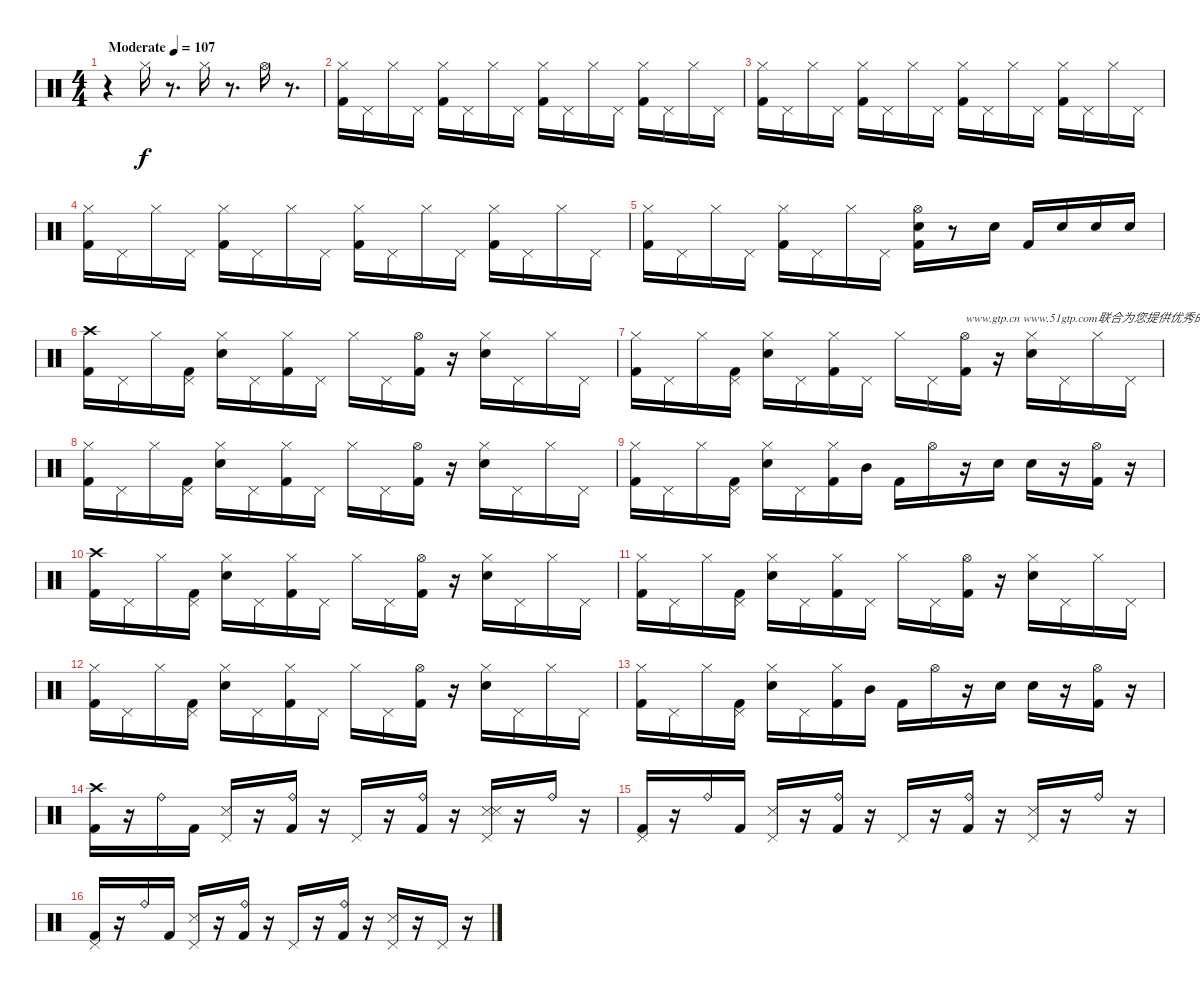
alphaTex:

\track "" {instrument percussion}
\staff {score}
\articulation defaults
\ts (4 4)
\tempo (107 "Moderate")
\clef neutral
\ks c
r.4{dy f} "Hi-Hat (closed)".16 r.8{d} "Hi-Hat (closed)".16 r.8{d} "Hi-Hat (open)".16 r.8{d} |
("Hi-Hat (closed)" "Kick (hit) 2").16 "Pedal Hi-Hat (hit)".16 "Hi-Hat (closed)".16 "Pedal Hi-Hat (hit)".16 ("Hi-Hat (closed)" "Kick (hit) 2").16 "Pedal Hi-Hat (hit)".16 "Hi-Hat (closed)".16 "Pedal Hi-Hat (hit)".16 ("Hi-Hat (closed)" "Kick (hit) 2").16 "Pedal Hi-Hat (hit)".16 "Hi-Hat (closed)".16 "Pedal Hi-Hat (hit)".16 ("Hi-Hat (closed)" "Kick (hit) 2").16 "Pedal Hi-Hat (hit)".16 "Hi-Hat (closed)".16 "Pedal Hi-Hat (hit)".16 |
("Hi-Hat (closed)" "Kick (hit) 2").16 "Pedal Hi-Hat (hit)".16 "Hi-Hat (closed)".16 "Pedal Hi-Hat (hit)".16 ("Hi-Hat (closed)" "Kick (hit) 2").16 "Pedal Hi-Hat (hit)".16 "Hi-Hat (closed)".16 "Pedal Hi-Hat (hit)".16 ("Hi-Hat (closed)" "Kick (hit) 2").16 "Pedal Hi-Hat (hit)".16 "Hi-Hat (closed)".16 "Pedal Hi-Hat (hit)".16 ("Hi-Hat (closed)" "Kick (hit) 2").16 "Pedal Hi-Hat (hit)".16 "Hi-Hat (closed)".16 "Pedal Hi-Hat (hit)".16 |
("Hi-Hat (closed)" "Kick (hit) 2").16 "Pedal Hi-Hat (hit)".16 "Hi-Hat (closed)".16 "Pedal Hi-Hat (hit)".16 ("Hi-Hat (closed)" "Kick (hit) 2").16 "Pedal Hi-Hat (hit)".16 "Hi-Hat (closed)".16 "Pedal Hi-Hat (hit)".16 ("Hi-Hat (closed)" "Kick (hit) 2").16 "Pedal Hi-Hat (hit)".16 "Hi-Hat (closed)".16 "Pedal Hi-Hat (hit)".16 ("Hi-Hat (closed)" "Kick (hit) 2").16 "Pedal Hi-Hat (hit)".16 "Hi-Hat (closed)".16 "Pedal Hi-Hat (hit)".16 |
("Hi-Hat (closed)" "Kick (hit) 2").16 "Pedal Hi-Hat (hit)".16 "Hi-Hat (closed)".16 "Pedal Hi-Hat (hit)".16 ("Hi-Hat (closed)" "Kick (hit) 2").16 "Pedal Hi-Hat (hit)".16 "Hi-Hat (closed)".16 "Pedal Hi-Hat (hit)".16 ("Electric Snare (hit)" "Hi-Hat (open)" "Kick (hit) 2").16 r.8 "Electric Snare (hit)".16 "Kick (hit) 2".16 "Electric Snare (hit)".16 "Electric Snare (hit)".16 "Electric Snare (hit)".16 |
("Crash high (hit)" "Kick (hit) 2").16 "Pedal Hi-Hat (hit)".16 "Hi-Hat (closed)".16 ("Pedal Hi-Hat (hit)" "Kick (hit) 2").16 ("Hi-Hat (closed)" "Electric Snare (hit)").16 "Pedal Hi-Hat (hit)".16 ("Hi-Hat (closed)" "Kick (hit) 2").16 "Pedal Hi-Hat (hit)".16 "Hi-Hat (closed)".16 "Pedal Hi-Hat (hit)".16 ("Hi-Hat (open)" "Kick (hit) 2").16 r.16 ("Hi-Hat (closed)" "Electric Snare (hit)").16 "Pedal Hi-Hat (hit)".16 "Hi-Hat (closed)".16 "Pedal Hi-Hat (hit)".16 |
("Hi-Hat (closed)" "Kick (hit) 2").16 "Pedal Hi-Hat (hit)".16 "Hi-Hat (closed)".16 ("Pedal Hi-Hat (hit)" "Kick (hit) 2").16 ("Hi-Hat (closed)" "Electric Snare (hit)").16 "Pedal Hi-Hat (hit)".16 ("Hi-Hat (closed)" "Kick (hit) 2").16 "Pedal Hi-Hat (hit)".16 "Hi-Hat (closed)".16 "Pedal Hi-Hat (hit)".16 ("Hi-Hat (open)" "Kick (hit) 2").16{txt "www.gtp.cn www.51gtp.com联合为您提供优秀的GTP!"} r.16 ("Hi-Hat (closed)" "Electric Snare (hit)").16 "Pedal Hi-Hat (hit)".16 "Hi-Hat (closed)".16 "Pedal Hi-Hat (hit)".16 |
("Hi-Hat (closed)" "Kick (hit) 2").16 "Pedal Hi-Hat (hit)".16 "Hi-Hat (closed)".16 ("Pedal Hi-Hat (hit)" "Kick (hit) 2").16 ("Hi-Hat (closed)" "Electric Snare (hit)").16 "Pedal Hi-Hat (hit)".16 ("Hi-Hat (closed)" "Kick (hit) 2").16 "Pedal Hi-Hat (hit)".16 "Hi-Hat (closed)".16 "Pedal Hi-Hat (hit)".16 ("Hi-Hat (open)" "Kick (hit) 2").16 r.16 ("Hi-Hat (closed)" "Electric Snare (hit)").16 "Pedal Hi-Hat (hit)".16 "Hi-Hat (closed)".16 "Pedal Hi-Hat (hit)".16 |
("Hi-Hat (closed)" "Kick (hit) 2").16 "Pedal Hi-Hat (hit)".16 "Hi-Hat (closed)".16 ("Pedal Hi-Hat (hit)" "Kick (hit) 2").16 ("Hi-Hat (closed)" "Electric Snare (hit)").16 "Pedal Hi-Hat (hit)".16 ("Hi-Hat (closed)" "Kick (hit) 2").16 "Mid Tom (hit)".16 "Kick (hit) 2".16 "Hi-Hat (open)".16 r.16 "Electric Snare (hit)".16 "Electric Snare (hit)".16 r.16 ("Hi-Hat (open)" "Kick (hit) 2").16 r.16 |
("Crash high (hit)" "Kick (hit) 2").16 "Pedal Hi-Hat (hit)".16 "Hi-Hat (closed)".16 ("Pedal Hi-Hat (hit)" "Kick (hit) 2").16 ("Hi-Hat (closed)" "Electric Snare (hit)").16 "Pedal Hi-Hat (hit)".16 ("Hi-Hat (closed)" "Kick (hit) 2").16 "Pedal Hi-Hat (hit)".16 "Hi-Hat (closed)".16 "Pedal Hi-Hat (hit)".16 ("Hi-Hat (open)" "Kick (hit) 2").16 r.16 ("Hi-Hat (closed)" "Electric Snare (hit)").16 "Pedal Hi-Hat (hit)".16 "Hi-Hat (closed)".16 "Pedal Hi-Hat (hit)".16 |
("Hi-Hat (closed)" "Kick (hit) 2").16 "Pedal Hi-Hat (hit)".16 "Hi-Hat (closed)".16 ("Pedal Hi-Hat (hit)" "Kick (hit) 2").16 ("Hi-Hat (closed)" "Electric Snare (hit)").16 "Pedal Hi-Hat (hit)".16 ("Hi-Hat (closed)" "Kick (hit) 2").16 "Pedal Hi-Hat (hit)".16 "Hi-Hat (closed)".16 "Pedal Hi-Hat (hit)".16 ("Hi-Hat (open)" "Kick (hit) 2").16 r.16 ("Hi-Hat (closed)" "Electric Snare (hit)").16 "Pedal Hi-Hat (hit)".16 "Hi-Hat (closed)".16 "Pedal Hi-Hat (hit)".16 |
("Hi-Hat (closed)" "Kick (hit) 2").16 "Pedal Hi-Hat (hit)".16 "Hi-Hat (closed)".16 ("Pedal Hi-Hat (hit)" "Kick (hit) 2").16 ("Hi-Hat (closed)" "Electric Snare (hit)").16 "Pedal Hi-Hat (hit)".16 ("Hi-Hat (closed)" "Kick (hit) 2").16 "Pedal Hi-Hat (hit)".16 "Hi-Hat (closed)".16 "Pedal Hi-Hat (hit)".16 ("Hi-Hat (open)" "Kick (hit) 2").16 r.16 ("Hi-Hat (closed)" "Electric Snare (hit)").16 "Pedal Hi-Hat (hit)".16 "Hi-Hat (closed)".16 "Pedal Hi-Hat (hit)".16 |
("Hi-Hat (closed)" "Kick (hit) 2").16 "Pedal Hi-Hat (hit)".16 "Hi-Hat (closed)".16 ("Pedal Hi-Hat (hit)" "Kick (hit) 2").16 ("Hi-Hat (closed)" "Electric Snare (hit)").16 "Pedal Hi-Hat (hit)".16 ("Hi-Hat (closed)" "Kick (hit) 2").16 "Mid Tom (hit)".16 "Kick (hit) 2".16 "Hi-Hat (open)".16 r.16 "Electric Snare (hit)".16 "Electric Snare (hit)".16 r.16 ("Hi-Hat (open)" "Kick (hit) 2").16 r.16 |
("Crash high (hit)" "Kick (hit) 2").16 r.16 "Ride (bell)".16 "Kick (hit) 2".16 ("Pedal Hi-Hat (hit)" "Snare (side stick) 3").16 r.16 ("Ride (bell)" "Kick (hit) 2").16 r.16 "Pedal Hi-Hat (hit)".16 r.16 ("Ride (bell)" "Kick (hit) 2").16 r.16 ("Pedal Hi-Hat (hit)" "Snare (side stick) 3" "Snare (side stick) 3").16 r.16 "Ride (bell)".16 r.16 |
("Pedal Hi-Hat (hit)" "Kick (hit) 2").16 r.16 "Ride (bell)".16 "Kick (hit) 2".16 ("Pedal Hi-Hat (hit)" "Snare (side stick) 3").16 r.16 ("Ride (bell)" "Kick (hit) 2").16 r.16 "Pedal Hi-Hat (hit)".16 r.16 ("Ride (bell)" "Kick (hit) 2").16 r.16 ("Pedal Hi-Hat (hit)" "Snare (side stick) 3").16 r.16 "Ride (bell)".16 r.16 |
("Pedal Hi-Hat (hit)" "Kick (hit) 2").16 r.16 "Ride (bell)".16 "Kick (hit) 2".16 ("Pedal Hi-Hat (hit)" "Snare (side stick) 3").16 r.16 ("Ride (bell)" "Kick (hit) 2").16 r.16 "Pedal Hi-Hat (hit)".16 r.16 ("Ride (bell)" "Kick (hit) 2").16 r.16 ("Pedal Hi-Hat (hit)" "Snare (side stick) 3").16 r.16 "Pedal Hi-Hat (hit)".16 r.16
